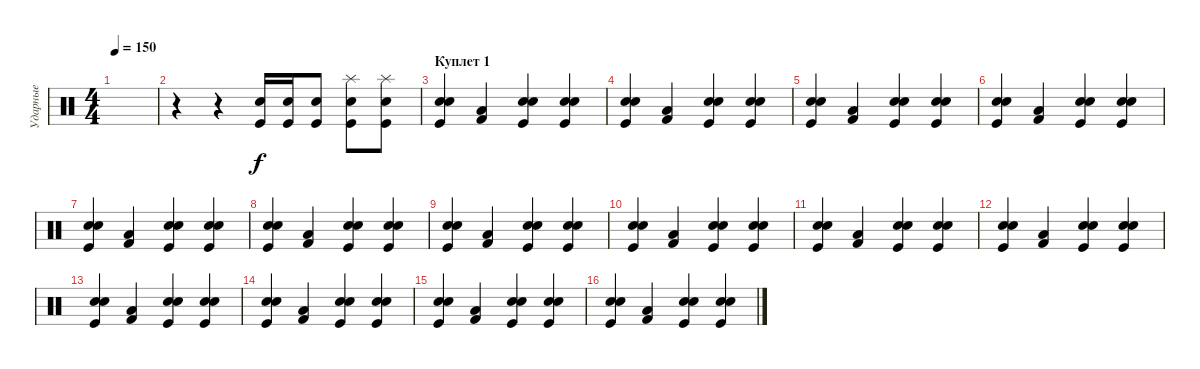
\track ("Ударные" "Ударные") {instrument percussion}
\staff {score}
\articulation defaults
\ts (4 4)
\tempo 150
\clef neutral
\ks c
|
r.4 r.4 ("Kick (hit)" "Electric Snare (hit)").16 ("Kick (hit)" "Electric Snare (hit)").16 ("Kick (hit)" "Electric Snare (hit)").8 ("Kick (hit)" "Electric Snare (hit)" "Splash (hit)").8 ("Kick (hit)" "Electric Snare (hit)" "Splash (hit)").8 |
\section ("" "Куплет 1")
("Electric Snare (hit)" "Kick (hit)" "Snare (hit) 2").4 ("Kick (hit) 2" "Low Tom (hit)").4 ("Electric Snare (hit)" "Kick (hit)" "Snare (hit) 2").4 ("Electric Snare (hit)" "Kick (hit)" "Snare (hit) 2").4 |
("Electric Snare (hit)" "Kick (hit)" "Snare (hit) 2").4 ("Kick (hit) 2" "Low Tom (hit)").4 ("Electric Snare (hit)" "Kick (hit)" "Snare (hit) 2").4 ("Electric Snare (hit)" "Kick (hit)" "Snare (hit) 2").4 |
("Electric Snare (hit)" "Kick (hit)" "Snare (hit) 2").4 ("Kick (hit) 2" "Low Tom (hit)").4 ("Electric Snare (hit)" "Kick (hit)" "Snare (hit) 2").4 ("Electric Snare (hit)" "Kick (hit)" "Snare (hit) 2").4 |
("Electric Snare (hit)" "Kick (hit)" "Snare (hit) 2").4 ("Kick (hit) 2" "Low Tom (hit)").4 ("Electric Snare (hit)" "Kick (hit)" "Snare (hit) 2").4 ("Electric Snare (hit)" "Kick (hit)" "Snare (hit) 2").4 |
("Electric Snare (hit)" "Kick (hit)" "Snare (hit) 2").4 ("Kick (hit) 2" "Low Tom (hit)").4 ("Electric Snare (hit)" "Kick (hit)" "Snare (hit) 2").4 ("Electric Snare (hit)" "Kick (hit)" "Snare (hit) 2").4 |
("Electric Snare (hit)" "Kick (hit)" "Snare (hit) 2").4 ("Kick (hit) 2" "Low Tom (hit)").4 ("Electric Snare (hit)" "Kick (hit)" "Snare (hit) 2").4 ("Electric Snare (hit)" "Kick (hit)" "Snare (hit) 2").4 |
("Electric Snare (hit)" "Kick (hit)" "Snare (hit) 2").4 ("Kick (hit) 2" "Low Tom (hit)").4 ("Electric Snare (hit)" "Kick (hit)" "Snare (hit) 2").4 ("Electric Snare (hit)" "Kick (hit)" "Snare (hit) 2").4 |
("Electric Snare (hit)" "Kick (hit)" "Snare (hit) 2").4 ("Kick (hit) 2" "Low Tom (hit)").4 ("Electric Snare (hit)" "Kick (hit)" "Snare (hit) 2").4 ("Electric Snare (hit)" "Kick (hit)" "Snare (hit) 2").4 |
("Electric Snare (hit)" "Kick (hit)" "Snare (hit) 2").4 ("Kick (hit) 2" "Low Tom (hit)").4 ("Electric Snare (hit)" "Kick (hit)" "Snare (hit) 2").4 ("Electric Snare (hit)" "Kick (hit)" "Snare (hit) 2").4 |
("Electric Snare (hit)" "Kick (hit)" "Snare (hit) 2").4 ("Kick (hit) 2" "Low Tom (hit)").4 ("Electric Snare (hit)" "Kick (hit)" "Snare (hit) 2").4 ("Electric Snare (hit)" "Kick (hit)" "Snare (hit) 2").4 |
("Electric Snare (hit)" "Kick (hit)" "Snare (hit) 2").4 ("Kick (hit) 2" "Low Tom (hit)").4 ("Electric Snare (hit)" "Kick (hit)" "Snare (hit) 2").4 ("Electric Snare (hit)" "Kick (hit)" "Snare (hit) 2").4 |
("Electric Snare (hit)" "Kick (hit)" "Snare (hit) 2").4 ("Kick (hit) 2" "Low Tom (hit)").4 ("Electric Snare (hit)" "Kick (hit)" "Snare (hit) 2").4 ("Electric Snare (hit)" "Kick (hit)" "Snare (hit) 2").4 |
("Electric Snare (hit)" "Kick (hit)" "Snare (hit) 2").4 ("Kick (hit) 2" "Low Tom (hit)").4 ("Electric Snare (hit)" "Kick (hit)" "Snare (hit) 2").4 ("Electric Snare (hit)" "Kick (hit)" "Snare (hit) 2").4 |
("Electric Snare (hit)" "Kick (hit)" "Snare (hit) 2").4 ("Kick (hit) 2" "Low Tom (hit)").4 ("Electric Snare (hit)" "Kick (hit)" "Snare (hit) 2").4 ("Electric Snare (hit)" "Kick (hit)" "Snare (hit) 2").4
